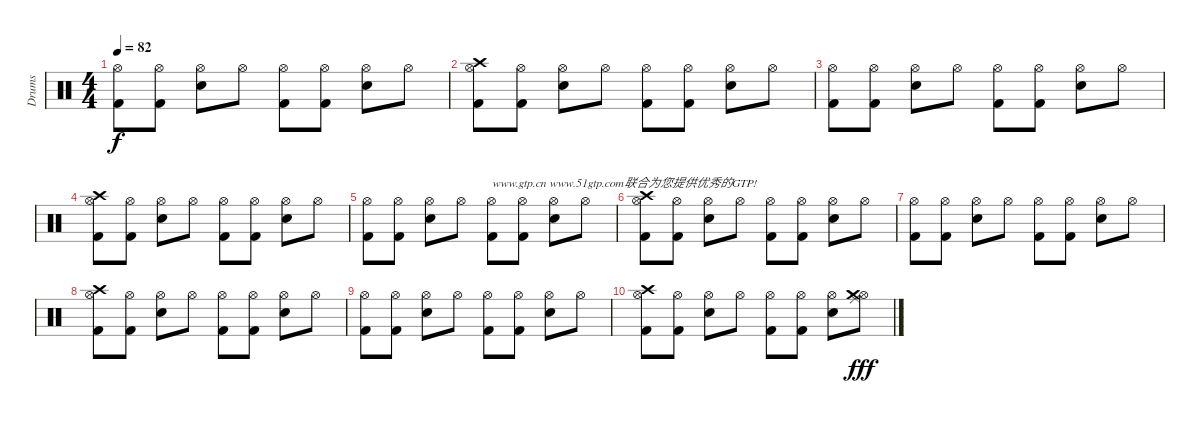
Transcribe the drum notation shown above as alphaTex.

\track ("Drums" "Drums") {instrument percussion}
\staff {score}
\articulation defaults
\ts (4 4)
\tempo 82
\clef neutral
\ks c
("Hi-Hat (open)" "Kick (hit) 2").8{dy f} ("Hi-Hat (open)" "Kick (hit) 2").8 ("Hi-Hat (open)" "Electric Snare (hit)").8 "Hi-Hat (open)".8 ("Hi-Hat (open)" "Kick (hit) 2").8 ("Hi-Hat (open)" "Kick (hit) 2").8 ("Hi-Hat (open)" "Electric Snare (hit)").8 "Hi-Hat (open)".8 |
("Hi-Hat (open)" "Crash high (hit)" "Kick (hit) 2").8 ("Hi-Hat (open)" "Kick (hit) 2").8 ("Hi-Hat (open)" "Electric Snare (hit)").8 "Hi-Hat (open)".8 ("Hi-Hat (open)" "Kick (hit) 2").8 ("Hi-Hat (open)" "Kick (hit) 2").8 ("Hi-Hat (open)" "Electric Snare (hit)").8 "Hi-Hat (open)".8 |
("Hi-Hat (open)" "Kick (hit) 2").8 ("Hi-Hat (open)" "Kick (hit) 2").8 ("Hi-Hat (open)" "Electric Snare (hit)").8 "Hi-Hat (open)".8 ("Hi-Hat (open)" "Kick (hit) 2").8 ("Hi-Hat (open)" "Kick (hit) 2").8 ("Hi-Hat (open)" "Electric Snare (hit)").8 "Hi-Hat (open)".8 |
("Hi-Hat (open)" "Crash high (hit)" "Kick (hit) 2").8 ("Hi-Hat (open)" "Kick (hit) 2").8 ("Hi-Hat (open)" "Electric Snare (hit)").8 "Hi-Hat (open)".8 ("Hi-Hat (open)" "Kick (hit) 2").8 ("Hi-Hat (open)" "Kick (hit) 2").8 ("Hi-Hat (open)" "Electric Snare (hit)").8 "Hi-Hat (open)".8 |
("Hi-Hat (open)" "Kick (hit) 2").8 ("Hi-Hat (open)" "Kick (hit) 2").8 ("Hi-Hat (open)" "Electric Snare (hit)").8 "Hi-Hat (open)".8 ("Hi-Hat (open)" "Kick (hit) 2").8{txt "www.gtp.cn www.51gtp.com联合为您提供优秀的GTP!"} ("Hi-Hat (open)" "Kick (hit) 2").8 ("Hi-Hat (open)" "Electric Snare (hit)").8 "Hi-Hat (open)".8 |
("Hi-Hat (open)" "Crash high (hit)" "Kick (hit) 2").8 ("Hi-Hat (open)" "Kick (hit) 2").8 ("Hi-Hat (open)" "Electric Snare (hit)").8 "Hi-Hat (open)".8 ("Hi-Hat (open)" "Kick (hit) 2").8 ("Hi-Hat (open)" "Kick (hit) 2").8 ("Hi-Hat (open)" "Electric Snare (hit)").8 "Hi-Hat (open)".8 |
("Hi-Hat (open)" "Kick (hit) 2").8 ("Hi-Hat (open)" "Kick (hit) 2").8 ("Hi-Hat (open)" "Electric Snare (hit)").8 "Hi-Hat (open)".8 ("Hi-Hat (open)" "Kick (hit) 2").8 ("Hi-Hat (open)" "Kick (hit) 2").8 ("Hi-Hat (open)" "Electric Snare (hit)").8 "Hi-Hat (open)".8 |
("Hi-Hat (open)" "Crash high (hit)" "Kick (hit) 2").8 ("Hi-Hat (open)" "Kick (hit) 2").8 ("Hi-Hat (open)" "Electric Snare (hit)").8 "Hi-Hat (open)".8 ("Hi-Hat (open)" "Kick (hit) 2").8 ("Hi-Hat (open)" "Kick (hit) 2").8 ("Hi-Hat (open)" "Electric Snare (hit)").8 "Hi-Hat (open)".8 |
("Hi-Hat (open)" "Kick (hit) 2").8 ("Hi-Hat (open)" "Kick (hit) 2").8 ("Hi-Hat (open)" "Electric Snare (hit)").8 "Hi-Hat (open)".8 ("Hi-Hat (open)" "Kick (hit) 2").8 ("Hi-Hat (open)" "Kick (hit) 2").8 ("Hi-Hat (open)" "Electric Snare (hit)").8 "Hi-Hat (open)".8 |
("Hi-Hat (open)" "Crash high (hit)" "Kick (hit) 2").8 ("Hi-Hat (open)" "Kick (hit) 2").8 ("Hi-Hat (open)" "Electric Snare (hit)").8 "Hi-Hat (open)".8 ("Hi-Hat (open)" "Kick (hit) 2").8 ("Hi-Hat (open)" "Kick (hit) 2").8 ("Hi-Hat (open)" "Electric Snare (hit)").8 ("Hi-Hat (open)" "Crash medium (hit)" "Ride (middle)").8{dy fff}
